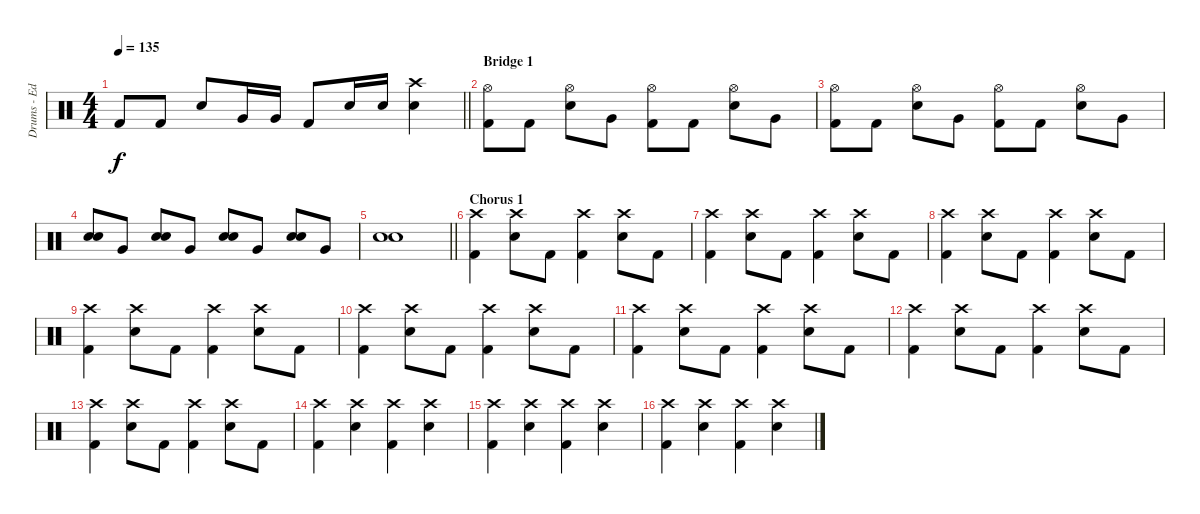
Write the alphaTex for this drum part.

\track ("Drums - Ed Edhus" "Drums - Ed") {instrument percussion bank 127}
\staff {score}
\articulation defaults
\ts (4 4)
\tempo 135
\clef neutral
\barLineRight lightlight
\ks c "Kick (hit) 2".8{dy f} "Kick (hit) 2".8 "Snare (hit) 2".8 "Very Low Tom (hit)".16 "Very Low Tom (hit)".16 "Kick (hit) 2".8 "Snare (hit) 2".16 "Snare (hit) 2".16
("Crash high (hit)" "Snare (hit) 2").4 |
\section ("" "Bridge 1")
("Hi-Hat (open)" "Kick (hit) 2").8 "Kick (hit) 2".8 ("Hi-Hat (open)" "Snare (hit) 2").8 "Very Low Tom (hit)".8 ("Hi-Hat (open)" "Kick (hit) 2").8 "Kick (hit) 2".8 ("Hi-Hat (open)" "Snare (hit) 2").8 "Very Low Tom (hit)".8 |
("Hi-Hat (open)" "Kick (hit) 2").8 "Kick (hit) 2".8 ("Hi-Hat (open)" "Snare (hit) 2").8 "Very Low Tom (hit)".8 ("Hi-Hat (open)" "Kick (hit) 2").8 "Kick (hit) 2".8 ("Hi-Hat (open)" "Snare (hit) 2").8 "Very Low Tom (hit)".8 |
("Snare (hit) 2" "Snare (hit) 2").8 "Very Low Tom (hit)".8 ("Snare (hit) 2" "Snare (hit) 2").8 "Very Low Tom (hit)".8 ("Snare (hit) 2" "Snare (hit) 2").8 "Very Low Tom (hit)".8 ("Snare (hit) 2" "Snare (hit) 2").8 "Very Low Tom (hit)".8 |
\barLineRight lightlight
("Snare (hit) 2" "Snare (hit) 2").1 |
\section ("" "Chorus 1")
("Crash high (hit)" "Kick (hit) 2").4 ("Crash high (hit)" "Snare (hit) 2").8 "Kick (hit) 2".8 ("Crash high (hit)" "Kick (hit) 2").4 ("Crash high (hit)" "Snare (hit) 2").8 "Kick (hit) 2".8 |
("Crash high (hit)" "Kick (hit) 2").4 ("Crash high (hit)" "Snare (hit) 2").8 "Kick (hit) 2".8 ("Crash high (hit)" "Kick (hit) 2").4 ("Crash high (hit)" "Snare (hit) 2").8 "Kick (hit) 2".8 |
("Crash high (hit)" "Kick (hit) 2").4 ("Crash high (hit)" "Snare (hit) 2").8 "Kick (hit) 2".8 ("Crash high (hit)" "Kick (hit) 2").4 ("Crash high (hit)" "Snare (hit) 2").8 "Kick (hit) 2".8 |
("Crash high (hit)" "Kick (hit) 2").4 ("Crash high (hit)" "Snare (hit) 2").8 "Kick (hit) 2".8 ("Crash high (hit)" "Kick (hit) 2").4 ("Crash high (hit)" "Snare (hit) 2").8 "Kick (hit) 2".8 |
("Crash high (hit)" "Kick (hit) 2").4 ("Crash high (hit)" "Snare (hit) 2").8 "Kick (hit) 2".8 ("Crash high (hit)" "Kick (hit) 2").4 ("Crash high (hit)" "Snare (hit) 2").8 "Kick (hit) 2".8 |
("Crash high (hit)" "Kick (hit) 2").4 ("Crash high (hit)" "Snare (hit) 2").8 "Kick (hit) 2".8 ("Crash high (hit)" "Kick (hit) 2").4 ("Crash high (hit)" "Snare (hit) 2").8 "Kick (hit) 2".8 |
("Crash high (hit)" "Kick (hit) 2").4 ("Crash high (hit)" "Snare (hit) 2").8 "Kick (hit) 2".8 ("Crash high (hit)" "Kick (hit) 2").4 ("Crash high (hit)" "Snare (hit) 2").8 "Kick (hit) 2".8 |
("Crash high (hit)" "Kick (hit) 2").4 ("Crash high (hit)" "Snare (hit) 2").8 "Kick (hit) 2".8 ("Crash high (hit)" "Kick (hit) 2").4 ("Crash high (hit)" "Snare (hit) 2").8 "Kick (hit) 2".8 |
("Crash high (hit)" "Kick (hit) 2").4 ("Crash high (hit)" "Snare (hit) 2").4 ("Crash high (hit)" "Kick (hit) 2").4 ("Crash high (hit)" "Snare (hit) 2").4 |
("Crash high (hit)" "Kick (hit) 2").4 ("Crash high (hit)" "Snare (hit) 2").4 ("Crash high (hit)" "Kick (hit) 2").4 ("Crash high (hit)" "Snare (hit) 2").4 |
("Crash high (hit)" "Kick (hit) 2").4 ("Crash high (hit)" "Snare (hit) 2").4 ("Crash high (hit)" "Kick (hit) 2").4 ("Crash high (hit)" "Snare (hit) 2").4
